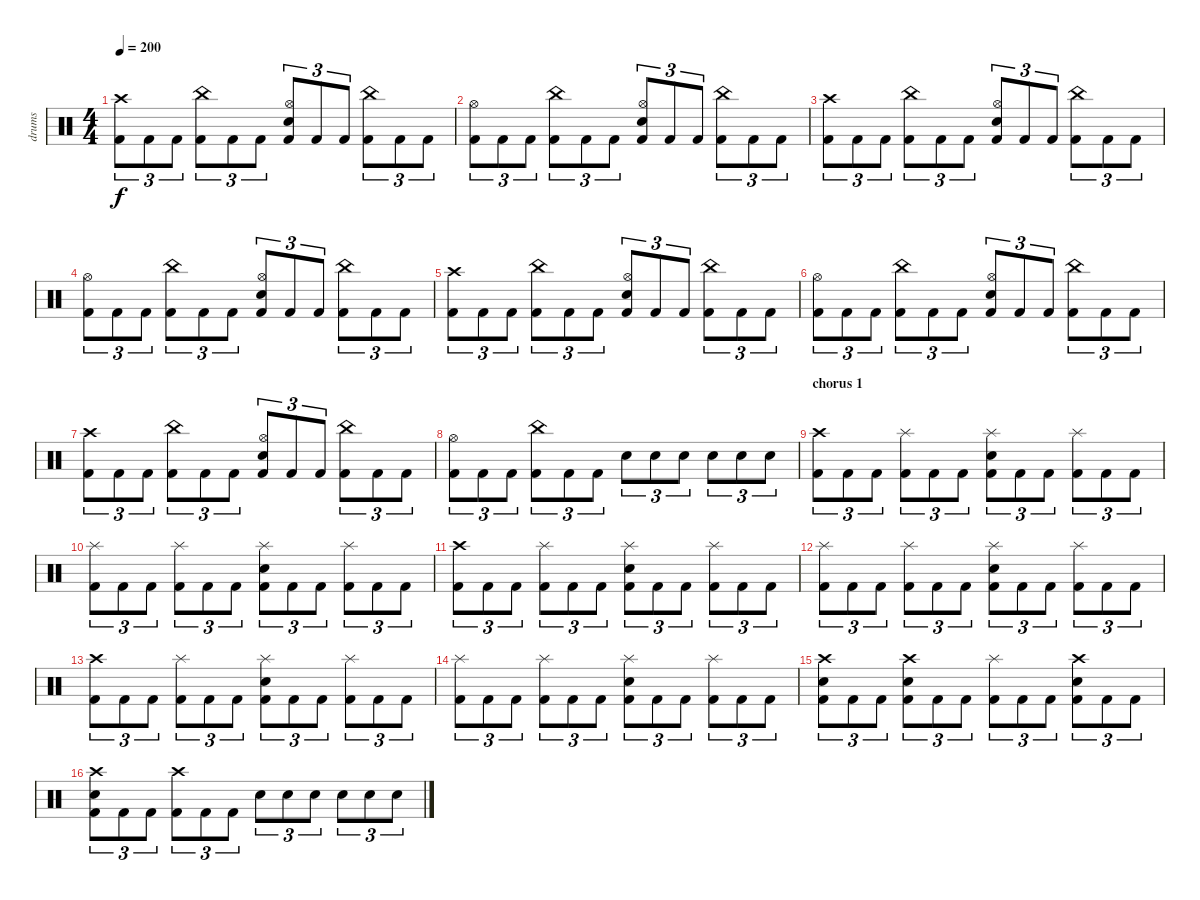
\track ("drums" "drums") {instrument percussion}
\staff {score}
\articulation defaults
\ts (4 4)
\tempo 200
\clef neutral
\ks c
("Crash high (hit)" "Kick (hit) 2").8{tu (3 2) dy f} "Kick (hit) 2".8{tu (3 2)} "Kick (hit) 2".8{tu (3 2)} ("China (hit)" "Kick (hit) 2").8{tu (3 2)} "Kick (hit) 2".8{tu (3 2)} "Kick (hit) 2".8{tu (3 2)} ("Hi-Hat (open)" "Electric Snare (hit)" "Kick (hit) 2").8{tu (3 2)} "Kick (hit) 2".8{tu (3 2)} "Kick (hit) 2".8{tu (3 2)} ("China (hit)" "Kick (hit) 2").8{tu (3 2)} "Kick (hit) 2".8{tu (3 2)} "Kick (hit) 2".8{tu (3 2)} |
("Hi-Hat (open)" "Kick (hit) 2").8{tu (3 2)} "Kick (hit) 2".8{tu (3 2)} "Kick (hit) 2".8{tu (3 2)} ("China (hit)" "Kick (hit) 2").8{tu (3 2)} "Kick (hit) 2".8{tu (3 2)} "Kick (hit) 2".8{tu (3 2)} ("Hi-Hat (open)" "Electric Snare (hit)" "Kick (hit) 2").8{tu (3 2)} "Kick (hit) 2".8{tu (3 2)} "Kick (hit) 2".8{tu (3 2)} ("China (hit)" "Kick (hit) 2").8{tu (3 2)} "Kick (hit) 2".8{tu (3 2)} "Kick (hit) 2".8{tu (3 2)} |
("Crash high (hit)" "Kick (hit) 2").8{tu (3 2)} "Kick (hit) 2".8{tu (3 2)} "Kick (hit) 2".8{tu (3 2)} ("China (hit)" "Kick (hit) 2").8{tu (3 2)} "Kick (hit) 2".8{tu (3 2)} "Kick (hit) 2".8{tu (3 2)} ("Hi-Hat (open)" "Electric Snare (hit)" "Kick (hit) 2").8{tu (3 2)} "Kick (hit) 2".8{tu (3 2)} "Kick (hit) 2".8{tu (3 2)} ("China (hit)" "Kick (hit) 2").8{tu (3 2)} "Kick (hit) 2".8{tu (3 2)} "Kick (hit) 2".8{tu (3 2)} |
("Hi-Hat (open)" "Kick (hit) 2").8{tu (3 2)} "Kick (hit) 2".8{tu (3 2)} "Kick (hit) 2".8{tu (3 2)} ("China (hit)" "Kick (hit) 2").8{tu (3 2)} "Kick (hit) 2".8{tu (3 2)} "Kick (hit) 2".8{tu (3 2)} ("Hi-Hat (open)" "Electric Snare (hit)" "Kick (hit) 2").8{tu (3 2)} "Kick (hit) 2".8{tu (3 2)} "Kick (hit) 2".8{tu (3 2)} ("China (hit)" "Kick (hit) 2").8{tu (3 2)} "Kick (hit) 2".8{tu (3 2)} "Kick (hit) 2".8{tu (3 2)} |
("Crash high (hit)" "Kick (hit) 2").8{tu (3 2)} "Kick (hit) 2".8{tu (3 2)} "Kick (hit) 2".8{tu (3 2)} ("China (hit)" "Kick (hit) 2").8{tu (3 2)} "Kick (hit) 2".8{tu (3 2)} "Kick (hit) 2".8{tu (3 2)} ("Hi-Hat (open)" "Electric Snare (hit)" "Kick (hit) 2").8{tu (3 2)} "Kick (hit) 2".8{tu (3 2)} "Kick (hit) 2".8{tu (3 2)} ("China (hit)" "Kick (hit) 2").8{tu (3 2)} "Kick (hit) 2".8{tu (3 2)} "Kick (hit) 2".8{tu (3 2)} |
("Hi-Hat (open)" "Kick (hit) 2").8{tu (3 2)} "Kick (hit) 2".8{tu (3 2)} "Kick (hit) 2".8{tu (3 2)} ("China (hit)" "Kick (hit) 2").8{tu (3 2)} "Kick (hit) 2".8{tu (3 2)} "Kick (hit) 2".8{tu (3 2)} ("Hi-Hat (open)" "Electric Snare (hit)" "Kick (hit) 2").8{tu (3 2)} "Kick (hit) 2".8{tu (3 2)} "Kick (hit) 2".8{tu (3 2)} ("China (hit)" "Kick (hit) 2").8{tu (3 2)} "Kick (hit) 2".8{tu (3 2)} "Kick (hit) 2".8{tu (3 2)} |
("Crash high (hit)" "Kick (hit) 2").8{tu (3 2)} "Kick (hit) 2".8{tu (3 2)} "Kick (hit) 2".8{tu (3 2)} ("China (hit)" "Kick (hit) 2").8{tu (3 2)} "Kick (hit) 2".8{tu (3 2)} "Kick (hit) 2".8{tu (3 2)} ("Hi-Hat (open)" "Electric Snare (hit)" "Kick (hit) 2").8{tu (3 2)} "Kick (hit) 2".8{tu (3 2)} "Kick (hit) 2".8{tu (3 2)} ("China (hit)" "Kick (hit) 2").8{tu (3 2)} "Kick (hit) 2".8{tu (3 2)} "Kick (hit) 2".8{tu (3 2)} |
("Hi-Hat (open)" "Kick (hit) 2").8{tu (3 2)} "Kick (hit) 2".8{tu (3 2)} "Kick (hit) 2".8{tu (3 2)} ("China (hit)" "Kick (hit) 2").8{tu (3 2)} "Kick (hit) 2".8{tu (3 2)} "Kick (hit) 2".8{tu (3 2)} "Electric Snare (hit)".8{tu (3 2)} "Electric Snare (hit)".8{tu (3 2)} "Electric Snare (hit)".8{tu (3 2)} "Electric Snare (hit)".8{tu (3 2)} "Electric Snare (hit)".8{tu (3 2)} "Electric Snare (hit)".8{tu (3 2)} |
\section ("" "chorus 1")
("Crash high (hit)" "Kick (hit) 2").8{tu (3 2)} "Kick (hit) 2".8{tu (3 2)} "Kick (hit) 2".8{tu (3 2)} ("Splash (hit)" "Kick (hit) 2").8{tu (3 2)} "Kick (hit) 2".8{tu (3 2)} "Kick (hit) 2".8{tu (3 2)} ("Splash (hit)" "Electric Snare (hit)" "Kick (hit) 2").8{tu (3 2)} "Kick (hit) 2".8{tu (3 2)} "Kick (hit) 2".8{tu (3 2)} ("Splash (hit)" "Kick (hit) 2").8{tu (3 2)} "Kick (hit) 2".8{tu (3 2)} "Kick (hit) 2".8{tu (3 2)} |
("Splash (hit)" "Kick (hit) 2").8{tu (3 2)} "Kick (hit) 2".8{tu (3 2)} "Kick (hit) 2".8{tu (3 2)} ("Splash (hit)" "Kick (hit) 2").8{tu (3 2)} "Kick (hit) 2".8{tu (3 2)} "Kick (hit) 2".8{tu (3 2)} ("Splash (hit)" "Electric Snare (hit)" "Kick (hit) 2").8{tu (3 2)} "Kick (hit) 2".8{tu (3 2)} "Kick (hit) 2".8{tu (3 2)} ("Splash (hit)" "Kick (hit) 2").8{tu (3 2)} "Kick (hit) 2".8{tu (3 2)} "Kick (hit) 2".8{tu (3 2)} |
("Crash high (hit)" "Kick (hit) 2").8{tu (3 2)} "Kick (hit) 2".8{tu (3 2)} "Kick (hit) 2".8{tu (3 2)} ("Splash (hit)" "Kick (hit) 2").8{tu (3 2)} "Kick (hit) 2".8{tu (3 2)} "Kick (hit) 2".8{tu (3 2)} ("Splash (hit)" "Electric Snare (hit)" "Kick (hit) 2").8{tu (3 2)} "Kick (hit) 2".8{tu (3 2)} "Kick (hit) 2".8{tu (3 2)} ("Splash (hit)" "Kick (hit) 2").8{tu (3 2)} "Kick (hit) 2".8{tu (3 2)} "Kick (hit) 2".8{tu (3 2)} |
("Splash (hit)" "Kick (hit) 2").8{tu (3 2)} "Kick (hit) 2".8{tu (3 2)} "Kick (hit) 2".8{tu (3 2)} ("Splash (hit)" "Kick (hit) 2").8{tu (3 2)} "Kick (hit) 2".8{tu (3 2)} "Kick (hit) 2".8{tu (3 2)} ("Splash (hit)" "Electric Snare (hit)" "Kick (hit) 2").8{tu (3 2)} "Kick (hit) 2".8{tu (3 2)} "Kick (hit) 2".8{tu (3 2)} ("Splash (hit)" "Kick (hit) 2").8{tu (3 2)} "Kick (hit) 2".8{tu (3 2)} "Kick (hit) 2".8{tu (3 2)} |
("Crash high (hit)" "Kick (hit) 2").8{tu (3 2)} "Kick (hit) 2".8{tu (3 2)} "Kick (hit) 2".8{tu (3 2)} ("Splash (hit)" "Kick (hit) 2").8{tu (3 2)} "Kick (hit) 2".8{tu (3 2)} "Kick (hit) 2".8{tu (3 2)} ("Splash (hit)" "Electric Snare (hit)" "Kick (hit) 2").8{tu (3 2)} "Kick (hit) 2".8{tu (3 2)} "Kick (hit) 2".8{tu (3 2)} ("Splash (hit)" "Kick (hit) 2").8{tu (3 2)} "Kick (hit) 2".8{tu (3 2)} "Kick (hit) 2".8{tu (3 2)} |
("Splash (hit)" "Kick (hit) 2").8{tu (3 2)} "Kick (hit) 2".8{tu (3 2)} "Kick (hit) 2".8{tu (3 2)} ("Splash (hit)" "Kick (hit) 2").8{tu (3 2)} "Kick (hit) 2".8{tu (3 2)} "Kick (hit) 2".8{tu (3 2)} ("Splash (hit)" "Electric Snare (hit)" "Kick (hit) 2").8{tu (3 2)} "Kick (hit) 2".8{tu (3 2)} "Kick (hit) 2".8{tu (3 2)} ("Splash (hit)" "Kick (hit) 2").8{tu (3 2)} "Kick (hit) 2".8{tu (3 2)} "Kick (hit) 2".8{tu (3 2)} |
("Crash high (hit)" "Electric Snare (hit)" "Kick (hit) 2").8{tu (3 2)} "Kick (hit) 2".8{tu (3 2)} "Kick (hit) 2".8{tu (3 2)} ("Crash high (hit)" "Electric Snare (hit)" "Kick (hit) 2").8{tu (3 2)} "Kick (hit) 2".8{tu (3 2)} "Kick (hit) 2".8{tu (3 2)} ("Splash (hit)" "Kick (hit) 2").8{tu (3 2)} "Kick (hit) 2".8{tu (3 2)} "Kick (hit) 2".8{tu (3 2)} ("Crash high (hit)" "Electric Snare (hit)" "Kick (hit) 2").8{tu (3 2)} "Kick (hit) 2".8{tu (3 2)} "Kick (hit) 2".8{tu (3 2)} |
("Crash high (hit)" "Electric Snare (hit)" "Kick (hit) 2").8{tu (3 2)} "Kick (hit) 2".8{tu (3 2)} "Kick (hit) 2".8{tu (3 2)} ("Crash high (hit)" "Kick (hit) 2").8{tu (3 2)} "Kick (hit) 2".8{tu (3 2)} "Kick (hit) 2".8{tu (3 2)} "Electric Snare (hit)".8{tu (3 2)} "Electric Snare (hit)".8{tu (3 2)} "Electric Snare (hit)".8{tu (3 2)} "Electric Snare (hit)".8{tu (3 2)} "Electric Snare (hit)".8{tu (3 2)} "Electric Snare (hit)".8{tu (3 2)}
